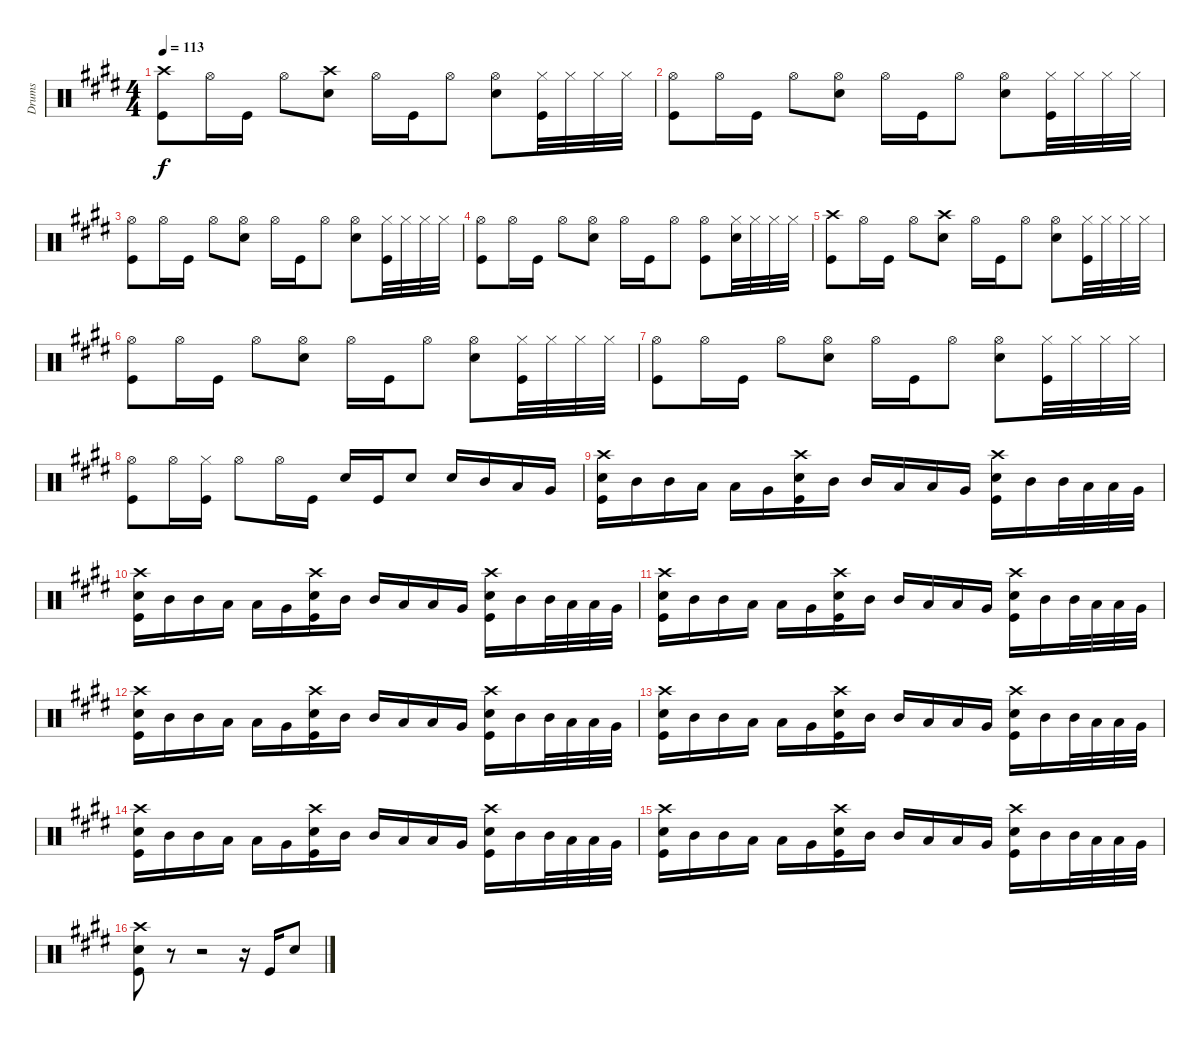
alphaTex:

\track ("Drums" "Drums") {instrument percussion}
\staff {score}
\articulation defaults
\ts (4 4)
\tempo 113
\clef neutral
\ks e
("Crash high (hit)" "Kick (hit)").8{dy f} "Hi-Hat (open)".16 "Kick (hit)".16 "Hi-Hat (open)".8 ("Crash high (hit)" "Snare (hit) 2").8 "Hi-Hat (open)".16 "Kick (hit)".16 "Hi-Hat (open)".8 ("Hi-Hat (open)" "Snare (hit) 2").8 ("Hi-Hat (closed)" "Kick (hit)").32 "Hi-Hat (closed)".32 "Hi-Hat (closed)".32 "Hi-Hat (closed)".32 |
("Hi-Hat (open)" "Kick (hit)").8 "Hi-Hat (open)".16 "Kick (hit)".16 "Hi-Hat (open)".8 ("Hi-Hat (open)" "Snare (hit) 2").8 "Hi-Hat (open)".16 "Kick (hit)".16 "Hi-Hat (open)".8 ("Hi-Hat (open)" "Snare (hit) 2").8 ("Hi-Hat (closed)" "Kick (hit)").32 "Hi-Hat (closed)".32 "Hi-Hat (closed)".32 "Hi-Hat (closed)".32 |
("Hi-Hat (open)" "Kick (hit)").8 "Hi-Hat (open)".16 "Kick (hit)".16 "Hi-Hat (open)".8 ("Hi-Hat (open)" "Snare (hit) 2").8 "Hi-Hat (open)".16 "Kick (hit)".16 "Hi-Hat (open)".8 ("Hi-Hat (open)" "Snare (hit) 2").8 ("Hi-Hat (closed)" "Kick (hit)").32 "Hi-Hat (closed)".32 "Hi-Hat (closed)".32 "Hi-Hat (closed)".32 |
("Hi-Hat (open)" "Kick (hit)").8 "Hi-Hat (open)".16 "Kick (hit)".16 "Hi-Hat (open)".8 ("Hi-Hat (open)" "Snare (hit) 2").8 "Hi-Hat (open)".16 "Kick (hit)".16 "Hi-Hat (open)".8 ("Hi-Hat (open)" "Kick (hit)").8 ("Hi-Hat (closed)" "Snare (hit) 2").32 "Hi-Hat (closed)".32 "Hi-Hat (closed)".32 "Hi-Hat (closed)".32 |
("Crash high (hit)" "Kick (hit)").8 "Hi-Hat (open)".16 "Kick (hit)".16 "Hi-Hat (open)".8 ("Crash high (hit)" "Snare (hit) 2").8 "Hi-Hat (open)".16 "Kick (hit)".16 "Hi-Hat (open)".8 ("Hi-Hat (open)" "Snare (hit) 2").8 ("Hi-Hat (closed)" "Kick (hit)").32 "Hi-Hat (closed)".32 "Hi-Hat (closed)".32 "Hi-Hat (closed)".32 |
("Hi-Hat (open)" "Kick (hit)").8 "Hi-Hat (open)".16 "Kick (hit)".16 "Hi-Hat (open)".8 ("Hi-Hat (open)" "Snare (hit) 2").8 "Hi-Hat (open)".16 "Kick (hit)".16 "Hi-Hat (open)".8 ("Hi-Hat (open)" "Snare (hit) 2").8 ("Hi-Hat (closed)" "Kick (hit)").32 "Hi-Hat (closed)".32 "Hi-Hat (closed)".32 "Hi-Hat (closed)".32 |
("Hi-Hat (open)" "Kick (hit)").8 "Hi-Hat (open)".16 "Kick (hit)".16 "Hi-Hat (open)".8 ("Hi-Hat (open)" "Snare (hit) 2").8 "Hi-Hat (open)".16 "Kick (hit)".16 "Hi-Hat (open)".8 ("Hi-Hat (open)" "Snare (hit) 2").8 ("Hi-Hat (closed)" "Kick (hit)").32 "Hi-Hat (closed)".32 "Hi-Hat (closed)".32 "Hi-Hat (closed)".32 |
("Hi-Hat (open)" "Kick (hit)").8 "Hi-Hat (open)".16 ("Hi-Hat (closed)" "Kick (hit)").16 "Hi-Hat (open)".8 "Hi-Hat (open)".16 "Kick (hit)".16 "Snare (hit) 2".16 "Kick (hit)".16 "Snare (hit) 2".8 "Snare (hit) 2".16 "Mid Tom (hit)".16 "Low Tom (hit)".16 "Very Low Tom (hit)".16 |
("Crash high (hit)" "Snare (hit) 2" "Kick (hit)").16 "Mid Tom (hit)".16 "Mid Tom (hit)".16 "Low Tom (hit)".16 "Low Tom (hit)".16 "Very Low Tom (hit)".16 ("Crash high (hit)" "Snare (hit) 2" "Kick (hit)").16 "Mid Tom (hit)".16 "Mid Tom (hit)".16 "Low Tom (hit)".16 "Low Tom (hit)".16 "Very Low Tom (hit)".16 ("Crash high (hit)" "Snare (hit) 2" "Kick (hit)").16 "Mid Tom (hit)".16 "Mid Tom (hit)".32 "Low Tom (hit)".32 "Low Tom (hit)".32 "Very Low Tom (hit)".32 |
("Crash high (hit)" "Snare (hit) 2" "Kick (hit)").16 "Mid Tom (hit)".16 "Mid Tom (hit)".16 "Low Tom (hit)".16 "Low Tom (hit)".16 "Very Low Tom (hit)".16 ("Crash high (hit)" "Snare (hit) 2" "Kick (hit)").16 "Mid Tom (hit)".16 "Mid Tom (hit)".16 "Low Tom (hit)".16 "Low Tom (hit)".16 "Very Low Tom (hit)".16 ("Crash high (hit)" "Snare (hit) 2" "Kick (hit)").16 "Mid Tom (hit)".16 "Mid Tom (hit)".32 "Low Tom (hit)".32 "Low Tom (hit)".32 "Very Low Tom (hit)".32 |
("Crash high (hit)" "Snare (hit) 2" "Kick (hit)").16 "Mid Tom (hit)".16 "Mid Tom (hit)".16 "Low Tom (hit)".16 "Low Tom (hit)".16 "Very Low Tom (hit)".16 ("Crash high (hit)" "Snare (hit) 2" "Kick (hit)").16 "Mid Tom (hit)".16 "Mid Tom (hit)".16 "Low Tom (hit)".16 "Low Tom (hit)".16 "Very Low Tom (hit)".16 ("Crash high (hit)" "Snare (hit) 2" "Kick (hit)").16 "Mid Tom (hit)".16 "Mid Tom (hit)".32 "Low Tom (hit)".32 "Low Tom (hit)".32 "Very Low Tom (hit)".32 |
("Crash high (hit)" "Snare (hit) 2" "Kick (hit)").16 "Mid Tom (hit)".16 "Mid Tom (hit)".16 "Low Tom (hit)".16 "Low Tom (hit)".16 "Very Low Tom (hit)".16 ("Crash high (hit)" "Snare (hit) 2" "Kick (hit)").16 "Mid Tom (hit)".16 "Mid Tom (hit)".16 "Low Tom (hit)".16 "Low Tom (hit)".16 "Very Low Tom (hit)".16 ("Crash high (hit)" "Snare (hit) 2" "Kick (hit)").16 "Mid Tom (hit)".16 "Mid Tom (hit)".32 "Low Tom (hit)".32 "Low Tom (hit)".32 "Very Low Tom (hit)".32 |
("Crash high (hit)" "Snare (hit) 2" "Kick (hit)").16 "Mid Tom (hit)".16 "Mid Tom (hit)".16 "Low Tom (hit)".16 "Low Tom (hit)".16 "Very Low Tom (hit)".16 ("Crash high (hit)" "Snare (hit) 2" "Kick (hit)").16 "Mid Tom (hit)".16 "Mid Tom (hit)".16 "Low Tom (hit)".16 "Low Tom (hit)".16 "Very Low Tom (hit)".16 ("Crash high (hit)" "Snare (hit) 2" "Kick (hit)").16 "Mid Tom (hit)".16 "Mid Tom (hit)".32 "Low Tom (hit)".32 "Low Tom (hit)".32 "Very Low Tom (hit)".32 |
("Crash high (hit)" "Snare (hit) 2" "Kick (hit)").16 "Mid Tom (hit)".16 "Mid Tom (hit)".16 "Low Tom (hit)".16 "Low Tom (hit)".16 "Very Low Tom (hit)".16 ("Crash high (hit)" "Snare (hit) 2" "Kick (hit)").16 "Mid Tom (hit)".16 "Mid Tom (hit)".16 "Low Tom (hit)".16 "Low Tom (hit)".16 "Very Low Tom (hit)".16 ("Crash high (hit)" "Snare (hit) 2" "Kick (hit)").16 "Mid Tom (hit)".16 "Mid Tom (hit)".32 "Low Tom (hit)".32 "Low Tom (hit)".32 "Very Low Tom (hit)".32 |
("Crash high (hit)" "Snare (hit) 2" "Kick (hit)").16 "Mid Tom (hit)".16 "Mid Tom (hit)".16 "Low Tom (hit)".16 "Low Tom (hit)".16 "Very Low Tom (hit)".16 ("Crash high (hit)" "Snare (hit) 2" "Kick (hit)").16 "Mid Tom (hit)".16 "Mid Tom (hit)".16 "Low Tom (hit)".16 "Low Tom (hit)".16 "Very Low Tom (hit)".16 ("Crash high (hit)" "Snare (hit) 2" "Kick (hit)").16 "Mid Tom (hit)".16 "Mid Tom (hit)".32 "Low Tom (hit)".32 "Low Tom (hit)".32 "Very Low Tom (hit)".32 |
("Crash high (hit)" "Snare (hit) 2" "Kick (hit)").8 r.8 r.2 r.16 "Kick (hit)".16 "Snare (hit) 2".8
